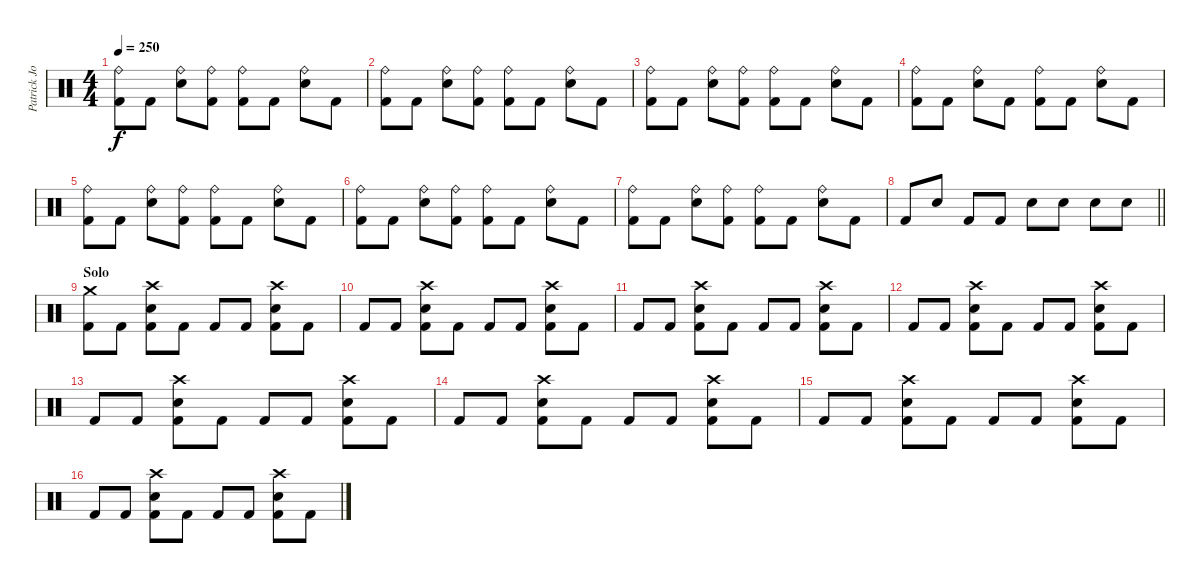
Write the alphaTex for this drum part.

\track ("Patrick Johansson" "Patrick Jo") {instrument percussion}
\staff {score}
\articulation defaults
\ts (4 4)
\tempo 250
\clef neutral
\ks c
("Ride (bell)" "Kick (hit) 2").8{dy f} "Kick (hit) 2".8 ("Ride (bell)" "Snare (hit) 2").8 ("Ride (bell)" "Kick (hit) 2").8 ("Ride (bell)" "Kick (hit) 2").8 "Kick (hit) 2".8 ("Ride (bell)" "Snare (hit) 2").8 "Kick (hit) 2".8 |
("Ride (bell)" "Kick (hit) 2").8 "Kick (hit) 2".8 ("Ride (bell)" "Snare (hit) 2").8 ("Ride (bell)" "Kick (hit) 2").8 ("Ride (bell)" "Kick (hit) 2").8 "Kick (hit) 2".8 ("Ride (bell)" "Snare (hit) 2").8 "Kick (hit) 2".8 |
("Ride (bell)" "Kick (hit) 2").8 "Kick (hit) 2".8 ("Ride (bell)" "Snare (hit) 2").8 ("Ride (bell)" "Kick (hit) 2").8 ("Ride (bell)" "Kick (hit) 2").8 "Kick (hit) 2".8 ("Ride (bell)" "Snare (hit) 2").8 "Kick (hit) 2".8 |
("Ride (bell)" "Kick (hit) 2").8 "Kick (hit) 2".8 ("Ride (bell)" "Snare (hit) 2").8 "Kick (hit) 2".8 ("Ride (bell)" "Kick (hit) 2").8 "Kick (hit) 2".8 ("Ride (bell)" "Snare (hit) 2").8 "Kick (hit) 2".8 |
("Ride (bell)" "Kick (hit) 2").8 "Kick (hit) 2".8 ("Ride (bell)" "Snare (hit) 2").8 ("Ride (bell)" "Kick (hit) 2").8 ("Ride (bell)" "Kick (hit) 2").8 "Kick (hit) 2".8 ("Ride (bell)" "Snare (hit) 2").8 "Kick (hit) 2".8 |
("Ride (bell)" "Kick (hit) 2").8 "Kick (hit) 2".8 ("Ride (bell)" "Snare (hit) 2").8 ("Ride (bell)" "Kick (hit) 2").8 ("Ride (bell)" "Kick (hit) 2").8 "Kick (hit) 2".8 ("Ride (bell)" "Snare (hit) 2").8 "Kick (hit) 2".8 |
("Ride (bell)" "Kick (hit) 2").8 "Kick (hit) 2".8 ("Ride (bell)" "Snare (hit) 2").8 ("Ride (bell)" "Kick (hit) 2").8 ("Ride (bell)" "Kick (hit) 2").8 "Kick (hit) 2".8 ("Ride (bell)" "Snare (hit) 2").8 "Kick (hit) 2".8 |
\barLineRight lightlight "Kick (hit) 2".8 "Snare (hit) 2".8 "Kick (hit) 2".8 "Kick (hit) 2".8 "Snare (hit) 2".8 "Snare (hit) 2".8 "Snare (hit) 2".8 "Snare (hit) 2".8
|
\section ("" "Solo")
("Crash medium (hit)" "Kick (hit) 2").8 "Kick (hit) 2".8 ("Crash high (hit)" "Snare (hit) 2" "Kick (hit) 2").8 "Kick (hit) 2".8 "Kick (hit) 2".8 "Kick (hit) 2".8 ("Crash high (hit)" "Snare (hit) 2" "Kick (hit) 2").8 "Kick (hit) 2".8 |
"Kick (hit) 2".8 "Kick (hit) 2".8 ("Crash high (hit)" "Snare (hit) 2" "Kick (hit) 2").8 "Kick (hit) 2".8 "Kick (hit) 2".8 "Kick (hit) 2".8 ("Crash high (hit)" "Snare (hit) 2" "Kick (hit) 2").8 "Kick (hit) 2".8 |
"Kick (hit) 2".8 "Kick (hit) 2".8 ("Crash high (hit)" "Snare (hit) 2" "Kick (hit) 2").8 "Kick (hit) 2".8 "Kick (hit) 2".8 "Kick (hit) 2".8 ("Crash high (hit)" "Snare (hit) 2" "Kick (hit) 2").8 "Kick (hit) 2".8 |
"Kick (hit) 2".8 "Kick (hit) 2".8 ("Crash high (hit)" "Snare (hit) 2" "Kick (hit) 2").8 "Kick (hit) 2".8 "Kick (hit) 2".8 "Kick (hit) 2".8 ("Crash high (hit)" "Snare (hit) 2" "Kick (hit) 2").8 "Kick (hit) 2".8 |
"Kick (hit) 2".8 "Kick (hit) 2".8 ("Crash high (hit)" "Snare (hit) 2" "Kick (hit) 2").8 "Kick (hit) 2".8 "Kick (hit) 2".8 "Kick (hit) 2".8 ("Crash high (hit)" "Snare (hit) 2" "Kick (hit) 2").8 "Kick (hit) 2".8 |
"Kick (hit) 2".8 "Kick (hit) 2".8 ("Crash high (hit)" "Snare (hit) 2" "Kick (hit) 2").8 "Kick (hit) 2".8 "Kick (hit) 2".8 "Kick (hit) 2".8 ("Crash high (hit)" "Snare (hit) 2" "Kick (hit) 2").8 "Kick (hit) 2".8 |
"Kick (hit) 2".8 "Kick (hit) 2".8 ("Crash high (hit)" "Snare (hit) 2" "Kick (hit) 2").8 "Kick (hit) 2".8 "Kick (hit) 2".8 "Kick (hit) 2".8 ("Crash high (hit)" "Snare (hit) 2" "Kick (hit) 2").8 "Kick (hit) 2".8 |
"Kick (hit) 2".8 "Kick (hit) 2".8 ("Crash high (hit)" "Snare (hit) 2" "Kick (hit) 2").8 "Kick (hit) 2".8 "Kick (hit) 2".8 "Kick (hit) 2".8 ("Crash high (hit)" "Snare (hit) 2" "Kick (hit) 2").8 "Kick (hit) 2".8
